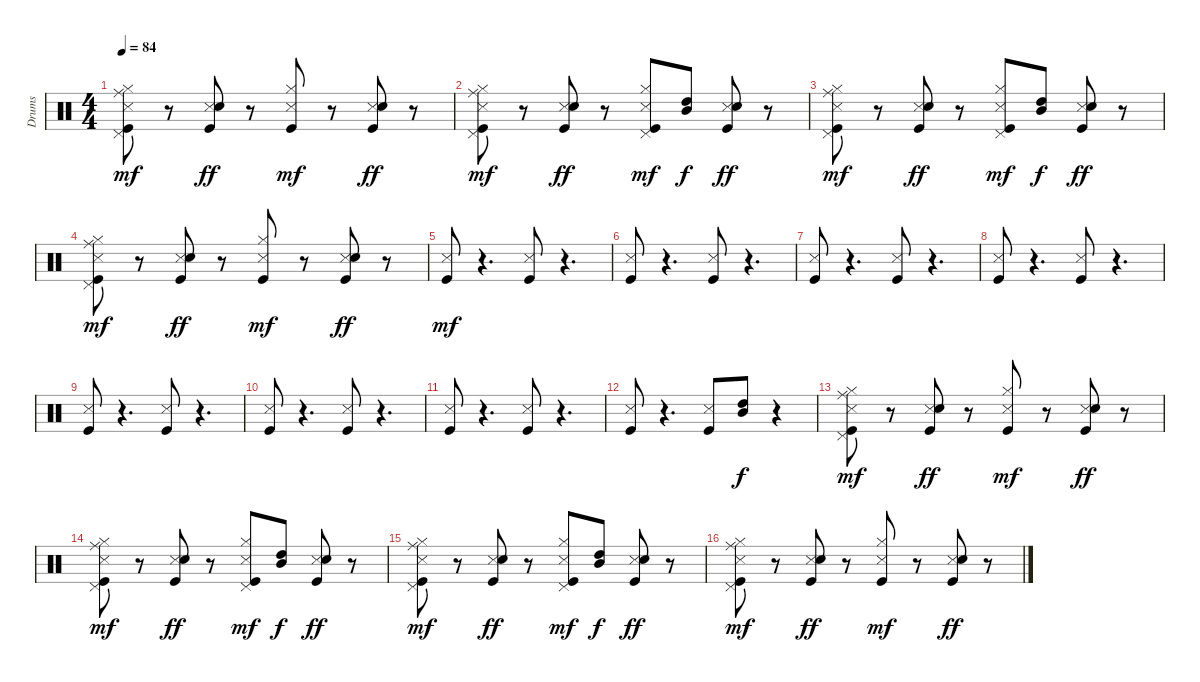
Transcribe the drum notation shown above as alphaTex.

\track ("Drums   " "Drums   ") {instrument percussion}
\staff {score}
\articulation defaults
\ts (4 4)
\tempo 84
\clef neutral
\ks c
("Ride (middle)" "Pedal Hi-Hat (hit)" "Kick (hit)" "Hi-Hat (closed)" "Snare (side stick) 3").8{dy mf} r.8 ("Kick (hit)" "Snare (side stick) 3" "Hand Clap (hit)").8{dy ff} r.8 ("Kick (hit)" "Hi-Hat (closed)" "Snare (side stick) 3").8{dy mf} r.8 ("Kick (hit)" "Snare (side stick) 3" "Hand Clap (hit)").8{dy ff} r.8 |
("Ride (middle)" "Pedal Hi-Hat (hit)" "Kick (hit)" "Hi-Hat (closed)" "Snare (side stick) 3").8{dy mf} r.8 ("Kick (hit)" "Snare (side stick) 3" "Hand Clap (hit)").8{dy ff} r.8 ("Pedal Hi-Hat (hit)" "Kick (hit)" "Hi-Hat (closed)" "Snare (side stick) 3").8{dy mf} ("Mid Tom (hit)" "High Tom (hit)").8{dy f} ("Kick (hit)" "Snare (side stick) 3" "Hand Clap (hit)").8{dy ff} r.8 |
("Ride (middle)" "Pedal Hi-Hat (hit)" "Kick (hit)" "Hi-Hat (closed)" "Snare (side stick) 3").8{dy mf} r.8 ("Kick (hit)" "Snare (side stick) 3" "Hand Clap (hit)").8{dy ff} r.8 ("Pedal Hi-Hat (hit)" "Kick (hit)" "Hi-Hat (closed)" "Snare (side stick) 3").8{dy mf} ("Mid Tom (hit)" "High Tom (hit)").8{dy f} ("Kick (hit)" "Snare (side stick) 3" "Hand Clap (hit)").8{dy ff} r.8 |
("Ride (middle)" "Pedal Hi-Hat (hit)" "Kick (hit)" "Hi-Hat (closed)" "Snare (side stick) 3").8{dy mf} r.8 ("Kick (hit)" "Snare (side stick) 3" "Hand Clap (hit)").8{dy ff} r.8 ("Kick (hit)" "Hi-Hat (closed)" "Snare (side stick) 3").8{dy mf} r.8 ("Kick (hit)" "Snare (side stick) 3" "Hand Clap (hit)").8{dy ff} r.8 |
("Kick (hit)" "Snare (side stick) 3").8{dy mf} r.4{d} ("Kick (hit)" "Snare (side stick) 3").8 r.4{d} |
("Kick (hit)" "Snare (side stick) 3").8 r.4{d} ("Kick (hit)" "Snare (side stick) 3").8 r.4{d} |
("Kick (hit)" "Snare (side stick) 3").8 r.4{d} ("Kick (hit)" "Snare (side stick) 3").8 r.4{d} |
("Kick (hit)" "Snare (side stick) 3").8 r.4{d} ("Kick (hit)" "Snare (side stick) 3").8 r.4{d} |
("Kick (hit)" "Snare (side stick) 3").8 r.4{d} ("Kick (hit)" "Snare (side stick) 3").8 r.4{d} |
("Kick (hit)" "Snare (side stick) 3").8 r.4{d} ("Kick (hit)" "Snare (side stick) 3").8 r.4{d} |
("Kick (hit)" "Snare (side stick) 3").8 r.4{d} ("Kick (hit)" "Snare (side stick) 3").8 r.4{d} |
("Kick (hit)" "Snare (side stick) 3").8 r.4{d} ("Kick (hit)" "Snare (side stick) 3").8 ("Mid Tom (hit)" "High Tom (hit)").8{dy f} r.4 |
("Ride (middle)" "Pedal Hi-Hat (hit)" "Kick (hit)" "Hi-Hat (closed)" "Snare (side stick) 3").8{dy mf} r.8 ("Kick (hit)" "Snare (side stick) 3" "Hand Clap (hit)").8{dy ff} r.8 ("Kick (hit)" "Hi-Hat (closed)" "Snare (side stick) 3").8{dy mf} r.8 ("Kick (hit)" "Snare (side stick) 3" "Hand Clap (hit)").8{dy ff} r.8 |
("Ride (middle)" "Pedal Hi-Hat (hit)" "Kick (hit)" "Hi-Hat (closed)" "Snare (side stick) 3").8{dy mf} r.8 ("Kick (hit)" "Snare (side stick) 3" "Hand Clap (hit)").8{dy ff} r.8 ("Pedal Hi-Hat (hit)" "Kick (hit)" "Hi-Hat (closed)" "Snare (side stick) 3").8{dy mf} ("Mid Tom (hit)" "High Tom (hit)").8{dy f} ("Kick (hit)" "Snare (side stick) 3" "Hand Clap (hit)").8{dy ff} r.8 |
("Ride (middle)" "Pedal Hi-Hat (hit)" "Kick (hit)" "Hi-Hat (closed)" "Snare (side stick) 3").8{dy mf} r.8 ("Kick (hit)" "Snare (side stick) 3" "Hand Clap (hit)").8{dy ff} r.8 ("Pedal Hi-Hat (hit)" "Kick (hit)" "Hi-Hat (closed)" "Snare (side stick) 3").8{dy mf} ("Mid Tom (hit)" "High Tom (hit)").8{dy f} ("Kick (hit)" "Snare (side stick) 3" "Hand Clap (hit)").8{dy ff} r.8 |
("Ride (middle)" "Pedal Hi-Hat (hit)" "Kick (hit)" "Hi-Hat (closed)" "Snare (side stick) 3").8{dy mf} r.8 ("Kick (hit)" "Snare (side stick) 3" "Hand Clap (hit)").8{dy ff} r.8 ("Kick (hit)" "Hi-Hat (closed)" "Snare (side stick) 3").8{dy mf} r.8 ("Kick (hit)" "Snare (side stick) 3" "Hand Clap (hit)").8{dy ff} r.8
